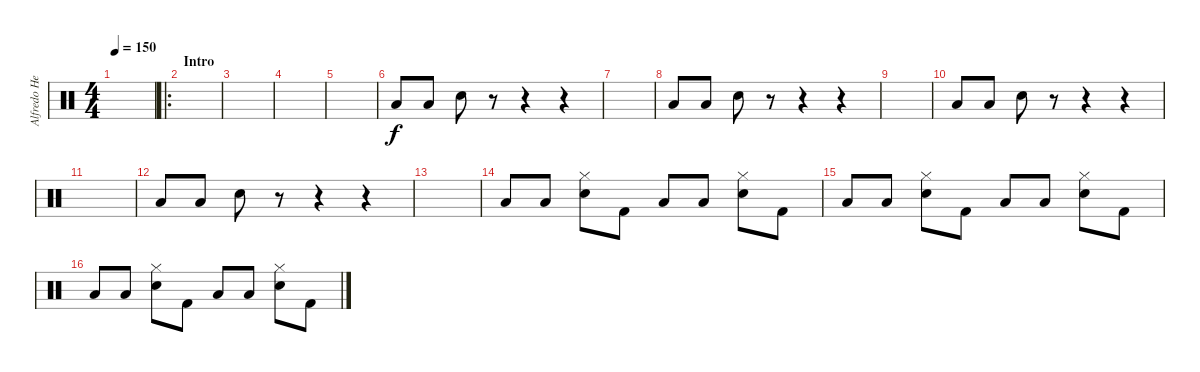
\track ("Alfredo Hernandez" "Alfredo He") {instrument percussion}
\staff {score}
\articulation defaults
\ts (4 4)
\tempo 150
\clef neutral
\ks c
|
\ro
\section ("" "Intro")
|
|
|
|
"Low Tom (hit)".8 "Low Tom (hit)".8 "Snare (hit) 2".8 r.8 r.4 r.4 |
|
"Low Tom (hit)".8 "Low Tom (hit)".8 "Snare (hit) 2".8 r.8 r.4 r.4 |
|
"Low Tom (hit)".8 "Low Tom (hit)".8 "Snare (hit) 2".8 r.8 r.4 r.4 |
|
"Low Tom (hit)".8 "Low Tom (hit)".8 "Snare (hit) 2".8 r.8 r.4 r.4 |
|
"Low Tom (hit)".8 "Low Tom (hit)".8 ("Snare (hit) 2" "Hi-Hat (closed)").8 "Kick (hit) 2".8 "Low Tom (hit)".8 "Low Tom (hit)".8 ("Snare (hit) 2" "Hi-Hat (closed)").8 "Kick (hit) 2".8 |
"Low Tom (hit)".8 "Low Tom (hit)".8 ("Snare (hit) 2" "Hi-Hat (closed)").8 "Kick (hit) 2".8 "Low Tom (hit)".8 "Low Tom (hit)".8 ("Snare (hit) 2" "Hi-Hat (closed)").8 "Kick (hit) 2".8 |
"Low Tom (hit)".8 "Low Tom (hit)".8 ("Snare (hit) 2" "Hi-Hat (closed)").8 "Kick (hit) 2".8 "Low Tom (hit)".8 "Low Tom (hit)".8 ("Snare (hit) 2" "Hi-Hat (closed)").8 "Kick (hit) 2".8
